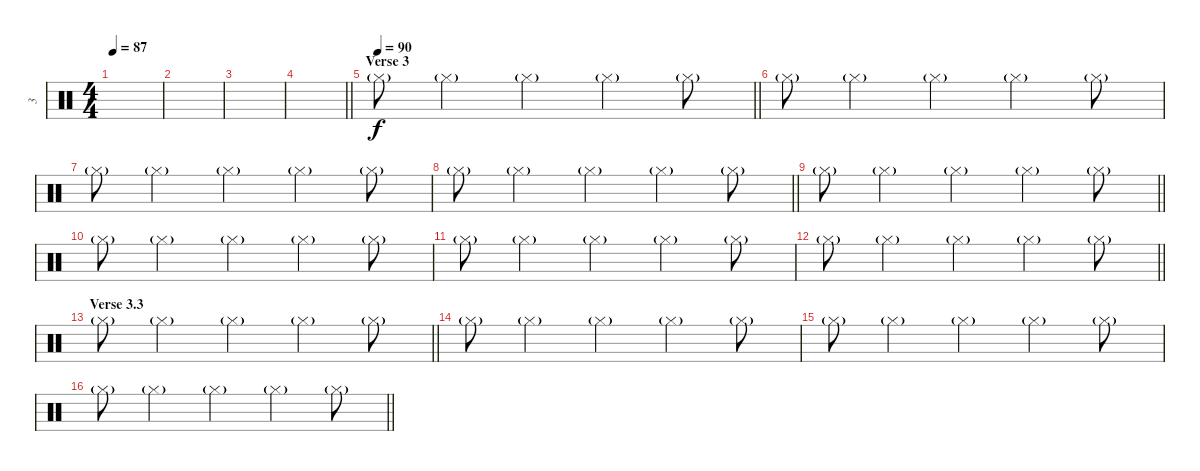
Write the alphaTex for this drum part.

\track ("3" "3") {instrument percussion}
\staff {score}
\articulation defaults
\ts (4 4)
\tempo 87
\clef neutral
\ks c
|
|
|
\barLineRight lightlight
|
\section ("" "Verse 3")
\tempo 90
\barLineRight lightlight "Hi-Hat (closed)"{g}.8 "Hi-Hat (closed)"{g}.4 "Hi-Hat (closed)"{g}.4 "Hi-Hat (closed)"{g}.4 "Hi-Hat (closed)"{g}.8
|
"Hi-Hat (closed)"{g}.8 "Hi-Hat (closed)"{g}.4 "Hi-Hat (closed)"{g}.4 "Hi-Hat (closed)"{g}.4 "Hi-Hat (closed)"{g}.8 |
"Hi-Hat (closed)"{g}.8 "Hi-Hat (closed)"{g}.4 "Hi-Hat (closed)"{g}.4 "Hi-Hat (closed)"{g}.4 "Hi-Hat (closed)"{g}.8 |
\barLineRight lightlight "Hi-Hat (closed)"{g}.8 "Hi-Hat (closed)"{g}.4 "Hi-Hat (closed)"{g}.4 "Hi-Hat (closed)"{g}.4 "Hi-Hat (closed)"{g}.8
|
\barLineRight lightlight "Hi-Hat (closed)"{g}.8 "Hi-Hat (closed)"{g}.4 "Hi-Hat (closed)"{g}.4 "Hi-Hat (closed)"{g}.4 "Hi-Hat (closed)"{g}.8
|
"Hi-Hat (closed)"{g}.8 "Hi-Hat (closed)"{g}.4 "Hi-Hat (closed)"{g}.4 "Hi-Hat (closed)"{g}.4 "Hi-Hat (closed)"{g}.8 |
"Hi-Hat (closed)"{g}.8 "Hi-Hat (closed)"{g}.4 "Hi-Hat (closed)"{g}.4 "Hi-Hat (closed)"{g}.4 "Hi-Hat (closed)"{g}.8 |
\barLineRight lightlight "Hi-Hat (closed)"{g}.8 "Hi-Hat (closed)"{g}.4 "Hi-Hat (closed)"{g}.4 "Hi-Hat (closed)"{g}.4 "Hi-Hat (closed)"{g}.8
|
\section ("" "Verse 3.3")
\barLineRight lightlight "Hi-Hat (closed)"{g}.8 "Hi-Hat (closed)"{g}.4 "Hi-Hat (closed)"{g}.4 "Hi-Hat (closed)"{g}.4 "Hi-Hat (closed)"{g}.8
|
"Hi-Hat (closed)"{g}.8 "Hi-Hat (closed)"{g}.4 "Hi-Hat (closed)"{g}.4 "Hi-Hat (closed)"{g}.4 "Hi-Hat (closed)"{g}.8 |
"Hi-Hat (closed)"{g}.8 "Hi-Hat (closed)"{g}.4 "Hi-Hat (closed)"{g}.4 "Hi-Hat (closed)"{g}.4 "Hi-Hat (closed)"{g}.8 |
\barLineRight lightlight "Hi-Hat (closed)"{g}.8 "Hi-Hat (closed)"{g}.4 "Hi-Hat (closed)"{g}.4 "Hi-Hat (closed)"{g}.4 "Hi-Hat (closed)"{g}.8
